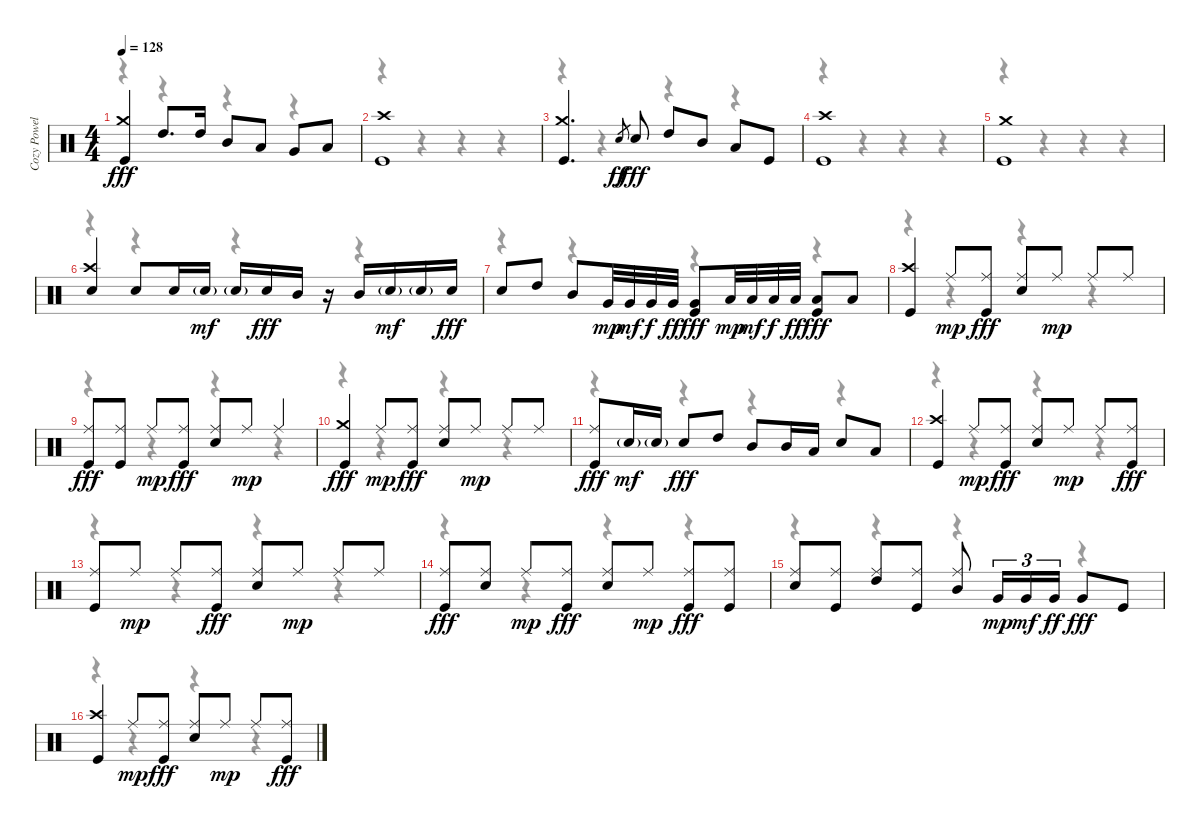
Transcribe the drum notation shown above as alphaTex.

\track ("Cozy Powell - Drums" "Cozy Powel") {instrument percussion}
\staff {score}
\articulation defaults
\voice
\ts (4 4)
\tempo 128
\clef neutral
\ks c
("Kick (hit)" "Crash medium (hit)").4{dy fff} "High Tom (hit)".8{d} "High Tom (hit)".16 "Mid Tom (hit)".8 "Low Tom (hit)".8 "Very Low Tom (hit)".8 "Low Floor Tom (hit)".8 |
("Kick (hit)" "Crash high (hit)").1 |
("Kick (hit)" "Crash medium (hit)").4{d} "Snare (hit)".8{gr dy ff} "Snare (hit) 2".8{dy fff} "High Tom (hit)".8 "Mid Tom (hit)".8 "Low Tom (hit)".8 "Kick (hit)".8 |
("Kick (hit)" "Crash high (hit)").1 |
("Kick (hit)" "Crash medium (hit)").1 |
("Snare (hit) 2" "Crash high (hit)").4 "Snare (hit) 2".8 "Snare (hit) 2".16 "Snare (hit) 2"{g}.16{dy mf} "Snare (hit) 2"{g}.16 "Snare (hit) 2".16{dy fff} "Mid Tom (hit)".16 r.16 "Mid Tom (hit)".16 "Snare (hit) 2"{g}.16{dy mf} "Snare (hit) 2"{g}.16 "Snare (hit) 2".16{dy fff} |
"Snare (hit) 2".8 "High Tom (hit)".8 "Mid Tom (hit)".8 "Very Low Tom (hit)".32{dy mp} "Very Low Tom (hit)".32{dy mf} "Very Low Tom (hit)".32{dy f} "Very Low Tom (hit)".32{dy ff} ("Kick (hit)" "Very Low Tom (hit)").8{dy fff} "Low Floor Tom (hit)".32{dy mp} "Low Floor Tom (hit)".32{dy mf} "Low Floor Tom (hit)".32{dy f} "Low Floor Tom (hit)".32{dy ff} ("Kick (hit)" "Low Floor Tom (hit)").8{dy fff} "Low Floor Tom (hit)".8 |
("Kick (hit)" "Crash high (hit)").4 "Ride (middle)".8{dy mp} ("Kick (hit)" "Ride (middle)").8{dy fff} ("Snare (hit) 2" "Ride (middle)").8 "Ride (middle)".8{dy mp} "Ride (middle)".8 "Ride (middle)".8 |
("Kick (hit)" "Ride (middle)").8{dy fff} ("Kick (hit)" "Ride (middle)").8 "Ride (middle)".8{dy mp} ("Kick (hit)" "Ride (middle)").8{dy fff} ("Snare (hit) 2" "Ride (middle)").8 "Ride (middle)".8{dy mp} "Ride (middle)".4 |
("Kick (hit)" "Crash medium (hit)").4{dy fff} "Ride (middle)".8{dy mp} ("Kick (hit)" "Ride (middle)").8{dy fff} ("Snare (hit) 2" "Ride (middle)").8 "Ride (middle)".8{dy mp} "Ride (middle)".8 "Ride (middle)".8 |
("Kick (hit)" "Ride (middle)").8{dy fff} "Snare (hit) 2"{g}.16{dy mf} "Snare (hit) 2"{g}.16 "Snare (hit) 2".8{dy fff} "High Tom (hit)".8 "Mid Tom (hit)".8 "Mid Tom (hit)".16 "Low Tom (hit)".16 "Snare (hit) 2".8 "Low Tom (hit)".8 |
("Kick (hit)" "Crash high (hit)").4 "Ride (middle)".8{dy mp} ("Kick (hit)" "Ride (middle)").8{dy fff} ("Snare (hit) 2" "Ride (middle)").8 "Ride (middle)".8{dy mp} "Ride (middle)".8 ("Kick (hit)" "Ride (middle)").8{dy fff} |
("Kick (hit)" "Ride (middle)").8 "Ride (middle)".8{dy mp} "Ride (middle)".8 ("Kick (hit)" "Ride (middle)").8{dy fff} ("Snare (hit) 2" "Ride (middle)").8 "Ride (middle)".8{dy mp} "Ride (middle)".8 "Ride (middle)".8 |
("Kick (hit)" "Ride (middle)").8{dy fff} ("Snare (hit) 2" "Ride (middle)").8 "Ride (middle)".8{dy mp} ("Kick (hit)" "Ride (middle)").8{dy fff} ("Snare (hit) 2" "Ride (middle)").8 "Ride (middle)".8{dy mp} ("Kick (hit)" "Ride (middle)").8{dy fff} ("Kick (hit)" "Ride (middle)").8 |
("Snare (hit) 2" "Ride (middle)").8 ("Kick (hit)" "Ride (middle)").8 ("High Tom (hit)" "Ride (middle)").8 ("Kick (hit)" "Ride (middle)").8 ("Mid Tom (hit)" "Ride (middle)").8 "Very Low Tom (hit)".16{tu (3 2) dy mp} "Very Low Tom (hit)".16{tu (3 2) dy mf} "Very Low Tom (hit)".16{tu (3 2) dy ff} "Very Low Tom (hit)".8{dy fff} "Kick (hit)".8 |
("Kick (hit)" "Crash high (hit)").4 "Ride (middle)".8{dy mp} ("Kick (hit)" "Ride (middle)").8{dy fff} ("Snare (hit) 2" "Ride (middle)").8 "Ride (middle)".8{dy mp} "Ride (middle)".8 ("Kick (hit)" "Ride (middle)").8{dy fff}
\voice
\clef neutral
\ottava regular
\simile none
\ks c
r.4{dy f} r.4 r.4 r.4 |
r.4 r.4 r.4 r.4 |
r.4 r.4 r.4 r.4 |
r.4 r.4 r.4 r.4 |
r.4 r.4 r.4 r.4 |
r.4 r.4 r.4 r.4 |
r.4 r.4 r.4 r.4 |
r.4 r.4 r.4 r.4 |
r.4 r.4 r.4 r.4 |
r.4 r.4 r.4 r.4 |
r.4 r.4 r.4 r.4 |
r.4 r.4 r.4 r.4 |
r.4 r.4 r.4 r.4 |
r.4 r.4 r.4 r.4 |
r.4 r.4 r.4 r.4 |
r.4 r.4 r.4 r.4
